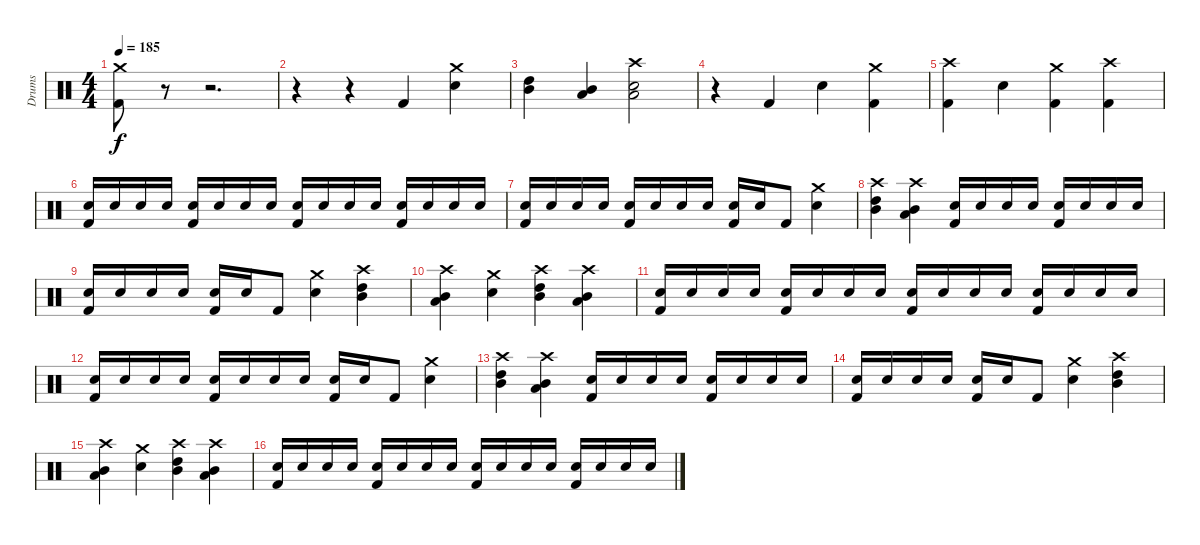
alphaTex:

\track ("Drums" "Drums") {instrument percussion}
\staff {score}
\articulation defaults
\ts (4 4)
\tempo 185
\clef neutral
\ks c
("Crash medium (hit)" "Kick (hit) 2").8{dy f} r.8 r.2{d} |
r.4 r.4 "Kick (hit) 2".4 ("Crash medium (hit)" "Electric Snare (hit)").4 |
("High Tom (hit)" "Mid Tom (hit)").4 ("Mid Tom (hit)" "Low Tom (hit)").4 ("Crash high (hit)" "Low Tom (hit)" "Electric Snare (hit)").2 |
r.4 "Kick (hit) 2".4 "Electric Snare (hit)".4 ("Crash medium (hit)" "Kick (hit) 2").4 |
("Crash high (hit)" "Kick (hit) 2").4 "Electric Snare (hit)".4 ("Crash medium (hit)" "Kick (hit) 2").4 ("Crash high (hit)" "Kick (hit) 2").4 |
("Electric Snare (hit)" "Kick (hit) 2").16 "Electric Snare (hit)".16 "Electric Snare (hit)".16 "Electric Snare (hit)".16 ("Electric Snare (hit)" "Kick (hit) 2").16 "Electric Snare (hit)".16 "Electric Snare (hit)".16 "Electric Snare (hit)".16 ("Electric Snare (hit)" "Kick (hit) 2").16 "Electric Snare (hit)".16 "Electric Snare (hit)".16 "Electric Snare (hit)".16 ("Electric Snare (hit)" "Kick (hit) 2").16 "Electric Snare (hit)".16 "Electric Snare (hit)".16 "Electric Snare (hit)".16 |
("Electric Snare (hit)" "Kick (hit) 2").16 "Electric Snare (hit)".16 "Electric Snare (hit)".16 "Electric Snare (hit)".16 ("Electric Snare (hit)" "Kick (hit) 2").16 "Electric Snare (hit)".16 "Electric Snare (hit)".16 "Electric Snare (hit)".16 ("Electric Snare (hit)" "Kick (hit) 2").16 "Electric Snare (hit)".16 "Kick (hit) 2".8 ("Crash medium (hit)" "Electric Snare (hit)").4 |
("Crash high (hit)" "High Tom (hit)" "Mid Tom (hit)").4 ("Crash high (hit)" "Mid Tom (hit)" "Low Tom (hit)").4 ("Electric Snare (hit)" "Kick (hit) 2").16 "Electric Snare (hit)".16 "Electric Snare (hit)".16 "Electric Snare (hit)".16 ("Electric Snare (hit)" "Kick (hit) 2").16 "Electric Snare (hit)".16 "Electric Snare (hit)".16 "Electric Snare (hit)".16 |
("Electric Snare (hit)" "Kick (hit) 2").16 "Electric Snare (hit)".16 "Electric Snare (hit)".16 "Electric Snare (hit)".16 ("Electric Snare (hit)" "Kick (hit) 2").16 "Electric Snare (hit)".16 "Kick (hit) 2".8 ("Crash medium (hit)" "Electric Snare (hit)").4 ("Crash high (hit)" "High Tom (hit)" "Mid Tom (hit)").4 |
("Crash high (hit)" "Mid Tom (hit)" "Low Tom (hit)").4 ("Crash medium (hit)" "Electric Snare (hit)").4 ("Crash high (hit)" "High Tom (hit)" "Mid Tom (hit)").4 ("Crash high (hit)" "Mid Tom (hit)" "Low Tom (hit)").4 |
("Electric Snare (hit)" "Kick (hit) 2").16 "Electric Snare (hit)".16 "Electric Snare (hit)".16 "Electric Snare (hit)".16 ("Electric Snare (hit)" "Kick (hit) 2").16 "Electric Snare (hit)".16 "Electric Snare (hit)".16 "Electric Snare (hit)".16 ("Electric Snare (hit)" "Kick (hit) 2").16 "Electric Snare (hit)".16 "Electric Snare (hit)".16 "Electric Snare (hit)".16 ("Electric Snare (hit)" "Kick (hit) 2").16 "Electric Snare (hit)".16 "Electric Snare (hit)".16 "Electric Snare (hit)".16 |
("Electric Snare (hit)" "Kick (hit) 2").16 "Electric Snare (hit)".16 "Electric Snare (hit)".16 "Electric Snare (hit)".16 ("Electric Snare (hit)" "Kick (hit) 2").16 "Electric Snare (hit)".16 "Electric Snare (hit)".16 "Electric Snare (hit)".16 ("Electric Snare (hit)" "Kick (hit) 2").16 "Electric Snare (hit)".16 "Kick (hit) 2".8 ("Crash medium (hit)" "Electric Snare (hit)").4 |
("Crash high (hit)" "High Tom (hit)" "Mid Tom (hit)").4 ("Crash high (hit)" "Mid Tom (hit)" "Low Tom (hit)").4 ("Electric Snare (hit)" "Kick (hit) 2").16 "Electric Snare (hit)".16 "Electric Snare (hit)".16 "Electric Snare (hit)".16 ("Electric Snare (hit)" "Kick (hit) 2").16 "Electric Snare (hit)".16 "Electric Snare (hit)".16 "Electric Snare (hit)".16 |
("Electric Snare (hit)" "Kick (hit) 2").16 "Electric Snare (hit)".16 "Electric Snare (hit)".16 "Electric Snare (hit)".16 ("Electric Snare (hit)" "Kick (hit) 2").16 "Electric Snare (hit)".16 "Kick (hit) 2".8 ("Crash medium (hit)" "Electric Snare (hit)").4 ("Crash high (hit)" "High Tom (hit)" "Mid Tom (hit)").4 |
("Crash high (hit)" "Mid Tom (hit)" "Low Tom (hit)").4 ("Crash medium (hit)" "Electric Snare (hit)").4 ("Crash high (hit)" "High Tom (hit)" "Mid Tom (hit)").4 ("Crash high (hit)" "Mid Tom (hit)" "Low Tom (hit)").4 |
("Electric Snare (hit)" "Kick (hit) 2").16 "Electric Snare (hit)".16 "Electric Snare (hit)".16 "Electric Snare (hit)".16 ("Electric Snare (hit)" "Kick (hit) 2").16 "Electric Snare (hit)".16 "Electric Snare (hit)".16 "Electric Snare (hit)".16 ("Electric Snare (hit)" "Kick (hit) 2").16 "Electric Snare (hit)".16 "Electric Snare (hit)".16 "Electric Snare (hit)".16 ("Electric Snare (hit)" "Kick (hit) 2").16 "Electric Snare (hit)".16 "Electric Snare (hit)".16 "Electric Snare (hit)".16
